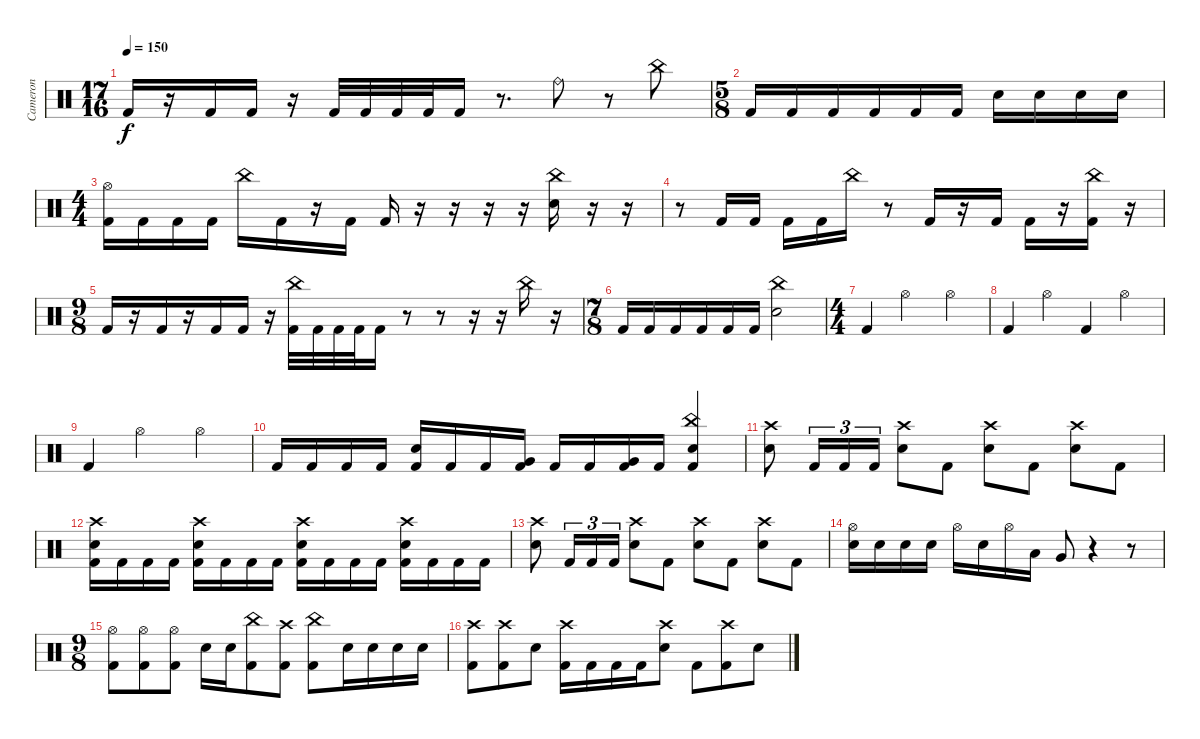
\track ("Cameron" "Cameron") {instrument percussion}
\staff {score}
\articulation defaults
\ts (17 16)
\tempo 150
\clef neutral
\ks c "Kick (hit) 2".16{dy f}
r.16 "Kick (hit) 2".16 "Kick (hit) 2".16 r.16 "Kick (hit) 2".32 "Kick (hit) 2".32 "Kick (hit) 2".32 "Kick (hit) 2".32 "Kick (hit) 2".16 r.8{d} "Ride (bell)".8 r.8 "China (hit)".8 |
\ts (5 8)
"Kick (hit) 2".16 "Kick (hit) 2".16 "Kick (hit) 2".16 "Kick (hit) 2".16 "Kick (hit) 2".16 "Kick (hit) 2".16 "Electric Snare (hit)".16 "Electric Snare (hit)".16 "Electric Snare (hit)".16 "Electric Snare (hit)".16 |
\ts (4 4)
("Kick (hit) 2" "Hi-Hat (open)").16 "Kick (hit) 2".16 "Kick (hit) 2".16 "Kick (hit) 2".16 "China (hit)".16 "Kick (hit) 2".16 r.16 "Kick (hit) 2".16 "Kick (hit) 2".16 r.16 r.16 r.16 r.16 ("Electric Snare (hit)" "China (hit)").16 r.16 r.16 |
r.8 "Kick (hit) 2".16 "Kick (hit) 2".16 "Kick (hit) 2".16 "Kick (hit) 2".16 "China (hit)".16 r.8 "Kick (hit) 2".16 r.16 "Kick (hit) 2".16 "Kick (hit) 2".16 r.16 ("Kick (hit) 2" "China (hit)").16 r.16 |
\ts (9 8)
"Kick (hit) 2".16 r.16 "Kick (hit) 2".16 r.16 "Kick (hit) 2".16 "Kick (hit) 2".16 r.16 ("Kick (hit) 2" "China (hit)").32 "Kick (hit) 2".32 "Kick (hit) 2".32 "Kick (hit) 2".32 "Kick (hit) 2".16 r.8 r.8 r.16 r.16 "China (hit)".16 r.16 |
\ts (7 8)
"Kick (hit) 2".16 "Kick (hit) 2".16 "Kick (hit) 2".16 "Kick (hit) 2".16 "Kick (hit) 2".16 "Kick (hit) 2".16 ("Electric Snare (hit)" "China (hit)").2 |
\ts (4 4)
"Kick (hit) 2".4 "Hi-Hat (open)".2 "Hi-Hat (open)".4 |
"Kick (hit) 2".4 "Hi-Hat (open)".4 "Kick (hit) 2".4 "Hi-Hat (open)".4 |
"Kick (hit) 2".4 "Hi-Hat (open)".2 "Hi-Hat (open)".4 |
"Kick (hit) 2".16 "Kick (hit) 2".16 "Kick (hit) 2".16 "Kick (hit) 2".16 ("Kick (hit) 2" "Electric Snare (hit)").16 "Kick (hit) 2".16 "Kick (hit) 2".16 ("Kick (hit) 2" "Very Low Tom (hit)").16 "Kick (hit) 2".16 "Kick (hit) 2".16 ("Kick (hit) 2" "Very Low Tom (hit)").16 "Kick (hit) 2".16 ("Kick (hit) 2" "Electric Snare (hit)" "China (hit)").4 |
("Crash high (hit)" "Electric Snare (hit)").8 "Kick (hit) 2".16{tu (3 2)} "Kick (hit) 2".16{tu (3 2)} "Kick (hit) 2".16{tu (3 2)} ("Crash high (hit)" "Electric Snare (hit)").8 "Kick (hit) 2".8 ("Crash high (hit)" "Electric Snare (hit)").8 "Kick (hit) 2".8 ("Crash high (hit)" "Electric Snare (hit)").8 "Kick (hit) 2".8 |
("Kick (hit) 2" "Crash high (hit)" "Electric Snare (hit)").16 "Kick (hit) 2".16 "Kick (hit) 2".16 "Kick (hit) 2".16 ("Kick (hit) 2" "Crash high (hit)" "Electric Snare (hit)").16 "Kick (hit) 2".16 "Kick (hit) 2".16 "Kick (hit) 2".16 ("Kick (hit) 2" "Crash high (hit)" "Electric Snare (hit)").16 "Kick (hit) 2".16 "Kick (hit) 2".16 "Kick (hit) 2".16 ("Kick (hit) 2" "Crash high (hit)" "Electric Snare (hit)").16 "Kick (hit) 2".16 "Kick (hit) 2".16 "Kick (hit) 2".16 |
("Crash high (hit)" "Electric Snare (hit)").8 "Kick (hit) 2".16{tu (3 2)} "Kick (hit) 2".16{tu (3 2)} "Kick (hit) 2".16{tu (3 2)} ("Crash high (hit)" "Electric Snare (hit)").8 "Kick (hit) 2".8 ("Crash high (hit)" "Electric Snare (hit)").8 "Kick (hit) 2".8 ("Crash high (hit)" "Electric Snare (hit)").8 "Kick (hit) 2".8 |
("Electric Snare (hit)" "Hi-Hat (open)").16 "Electric Snare (hit)".16 "Electric Snare (hit)".16 "Electric Snare (hit)".16 "Hi-Hat (open)".16 "Electric Snare (hit)".16 "Hi-Hat (open)".16 "Low Tom (hit)".16 "Very Low Tom (hit)".8 r.4 r.8 |
\ts (9 8)
("Kick (hit) 2" "Hi-Hat (open)").8 ("Kick (hit) 2" "Hi-Hat (open)").8 ("Kick (hit) 2" "Hi-Hat (open)").8 "Electric Snare (hit)".16 "Electric Snare (hit)".16 ("Kick (hit) 2" "China (hit)").8 ("Kick (hit) 2" "Crash high (hit)").8 ("Kick (hit) 2" "China (hit)").8 "Electric Snare (hit)".16 "Electric Snare (hit)".16 "Electric Snare (hit)".16 "Electric Snare (hit)".16 |
("Kick (hit) 2" "Crash high (hit)").8 ("Kick (hit) 2" "Crash high (hit)").8 "Electric Snare (hit)".8 ("Kick (hit) 2" "Crash high (hit)").16 "Kick (hit) 2".16 "Kick (hit) 2".16 "Kick (hit) 2".16 ("Electric Snare (hit)" "Crash high (hit)").8 "Kick (hit) 2".8 ("Kick (hit) 2" "Crash high (hit)").8 "Electric Snare (hit)".8
